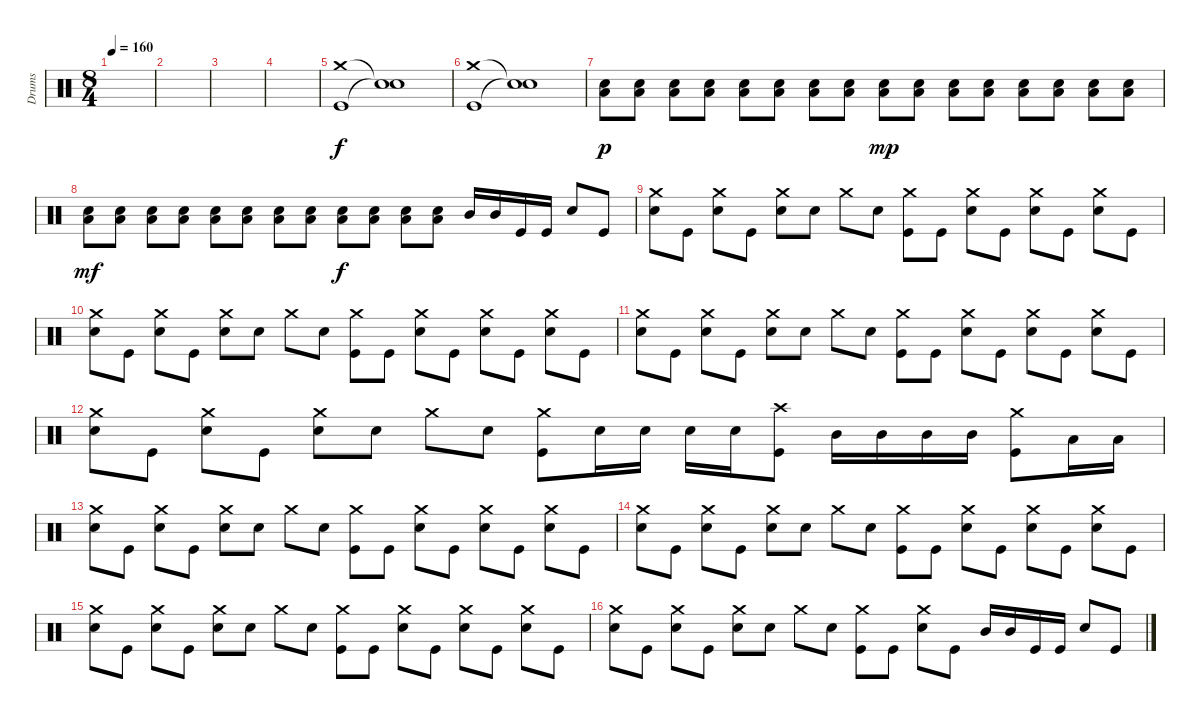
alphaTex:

\track ("Drums" "Drums") {instrument percussion}
\staff {score}
\articulation defaults
\ts (8 4)
\tempo 160
\clef neutral
\ks c
|
|
|
|
("Crash medium (hit)" "Kick (hit)").1 ("Snare (hit)"{t} "Snare (hit)"{t}).1 |
("Crash medium (hit)" "Kick (hit)").1 ("Snare (hit)"{t} "Snare (hit)"{t}).1 |
("Snare (hit) 2" "Low Floor Tom (hit)").8{dy p} ("Snare (hit) 2" "Low Floor Tom (hit)").8 ("Snare (hit) 2" "Low Floor Tom (hit)").8 ("Snare (hit) 2" "Low Floor Tom (hit)").8 ("Snare (hit) 2" "Low Floor Tom (hit)").8 ("Snare (hit) 2" "Low Floor Tom (hit)").8 ("Snare (hit) 2" "Low Floor Tom (hit)").8 ("Snare (hit) 2" "Low Floor Tom (hit)").8 ("Snare (hit) 2" "Low Floor Tom (hit)").8{dy mp} ("Snare (hit) 2" "Low Floor Tom (hit)").8 ("Snare (hit) 2" "Low Floor Tom (hit)").8 ("Snare (hit) 2" "Low Floor Tom (hit)").8 ("Snare (hit) 2" "Low Floor Tom (hit)").8 ("Snare (hit) 2" "Low Floor Tom (hit)").8 ("Snare (hit) 2" "Low Floor Tom (hit)").8 ("Snare (hit) 2" "Low Floor Tom (hit)").8 |
("Snare (hit) 2" "Low Floor Tom (hit)").8{dy mf} ("Snare (hit) 2" "Low Floor Tom (hit)").8 ("Snare (hit) 2" "Low Floor Tom (hit)").8 ("Snare (hit) 2" "Low Floor Tom (hit)").8 ("Snare (hit) 2" "Low Floor Tom (hit)").8 ("Snare (hit) 2" "Low Floor Tom (hit)").8 ("Snare (hit) 2" "Low Floor Tom (hit)").8 ("Snare (hit) 2" "Low Floor Tom (hit)").8 ("Snare (hit) 2" "Low Floor Tom (hit)").8{dy f} ("Snare (hit) 2" "Low Floor Tom (hit)").8 ("Snare (hit) 2" "Low Floor Tom (hit)").8 ("Snare (hit) 2" "Low Floor Tom (hit)").8 "Mid Tom (hit)".16 "Mid Tom (hit)".16 "Kick (hit)".16 "Kick (hit)".16 "Snare (hit) 2".8 "Kick (hit)".8 |
("Crash medium (hit)" "Snare (hit) 2").8 "Kick (hit)".8 ("Crash medium (hit)" "Snare (hit) 2").8 "Kick (hit)".8 ("Crash medium (hit)" "Snare (hit) 2").8 "Snare (hit) 2".8 "Crash medium (hit)".8 "Snare (hit) 2".8 ("Crash medium (hit)" "Kick (hit)").8 "Kick (hit)".8 ("Crash medium (hit)" "Snare (hit) 2").8 "Kick (hit)".8 ("Crash medium (hit)" "Snare (hit) 2").8 "Kick (hit)".8 ("Crash medium (hit)" "Snare (hit) 2").8 "Kick (hit)".8 |
("Crash medium (hit)" "Snare (hit) 2").8 "Kick (hit)".8 ("Crash medium (hit)" "Snare (hit) 2").8 "Kick (hit)".8 ("Crash medium (hit)" "Snare (hit) 2").8 "Snare (hit) 2".8 "Crash medium (hit)".8 "Snare (hit) 2".8 ("Crash medium (hit)" "Kick (hit)").8 "Kick (hit)".8 ("Crash medium (hit)" "Snare (hit) 2").8 "Kick (hit)".8 ("Crash medium (hit)" "Snare (hit) 2").8 "Kick (hit)".8 ("Crash medium (hit)" "Snare (hit) 2").8 "Kick (hit)".8 |
("Crash medium (hit)" "Snare (hit) 2").8 "Kick (hit)".8 ("Crash medium (hit)" "Snare (hit) 2").8 "Kick (hit)".8 ("Crash medium (hit)" "Snare (hit) 2").8 "Snare (hit) 2".8 "Crash medium (hit)".8 "Snare (hit) 2".8 ("Crash medium (hit)" "Kick (hit)").8 "Kick (hit)".8 ("Crash medium (hit)" "Snare (hit) 2").8 "Kick (hit)".8 ("Crash medium (hit)" "Snare (hit) 2").8 "Kick (hit)".8 ("Crash medium (hit)" "Snare (hit) 2").8 "Kick (hit)".8 |
("Crash medium (hit)" "Snare (hit) 2").8 "Kick (hit)".8 ("Crash medium (hit)" "Snare (hit) 2").8 "Kick (hit)".8 ("Crash medium (hit)" "Snare (hit) 2").8 "Snare (hit) 2".8 "Crash medium (hit)".8 "Snare (hit) 2".8 ("Crash medium (hit)" "Kick (hit)").8 "Snare (hit) 2".16 "Snare (hit) 2".16 "Snare (hit) 2".16 "Snare (hit) 2".16 ("Crash high (hit)" "Kick (hit)").8 "Mid Tom (hit)".16 "Mid Tom (hit)".16 "Mid Tom (hit)".16 "Mid Tom (hit)".16 ("Crash medium (hit)" "Kick (hit)").8 "Low Floor Tom (hit)".16 "Low Floor Tom (hit)".16 |
("Crash medium (hit)" "Snare (hit) 2").8 "Kick (hit)".8 ("Crash medium (hit)" "Snare (hit) 2").8 "Kick (hit)".8 ("Crash medium (hit)" "Snare (hit) 2").8 "Snare (hit) 2".8 "Crash medium (hit)".8 "Snare (hit) 2".8 ("Crash medium (hit)" "Kick (hit)").8 "Kick (hit)".8 ("Crash medium (hit)" "Snare (hit) 2").8 "Kick (hit)".8 ("Crash medium (hit)" "Snare (hit) 2").8 "Kick (hit)".8 ("Crash medium (hit)" "Snare (hit) 2").8 "Kick (hit)".8 |
("Crash medium (hit)" "Snare (hit) 2").8 "Kick (hit)".8 ("Crash medium (hit)" "Snare (hit) 2").8 "Kick (hit)".8 ("Crash medium (hit)" "Snare (hit) 2").8 "Snare (hit) 2".8 "Crash medium (hit)".8 "Snare (hit) 2".8 ("Crash medium (hit)" "Kick (hit)").8 "Kick (hit)".8 ("Crash medium (hit)" "Snare (hit) 2").8 "Kick (hit)".8 ("Crash medium (hit)" "Snare (hit) 2").8 "Kick (hit)".8 ("Crash medium (hit)" "Snare (hit) 2").8 "Kick (hit)".8 |
("Crash medium (hit)" "Snare (hit) 2").8 "Kick (hit)".8 ("Crash medium (hit)" "Snare (hit) 2").8 "Kick (hit)".8 ("Crash medium (hit)" "Snare (hit) 2").8 "Snare (hit) 2".8 "Crash medium (hit)".8 "Snare (hit) 2".8 ("Crash medium (hit)" "Kick (hit)").8 "Kick (hit)".8 ("Crash medium (hit)" "Snare (hit) 2").8 "Kick (hit)".8 ("Crash medium (hit)" "Snare (hit) 2").8 "Kick (hit)".8 ("Crash medium (hit)" "Snare (hit) 2").8 "Kick (hit)".8 |
("Crash medium (hit)" "Snare (hit) 2").8 "Kick (hit)".8 ("Crash medium (hit)" "Snare (hit) 2").8 "Kick (hit)".8 ("Crash medium (hit)" "Snare (hit) 2").8 "Snare (hit) 2".8 "Crash medium (hit)".8 "Snare (hit) 2".8 ("Crash medium (hit)" "Kick (hit)").8 "Kick (hit)".8 ("Crash medium (hit)" "Snare (hit) 2").8 "Kick (hit)".8 "Mid Tom (hit)".16 "Mid Tom (hit)".16 "Kick (hit)".16 "Kick (hit)".16 "Snare (hit) 2".8 "Kick (hit)".8
